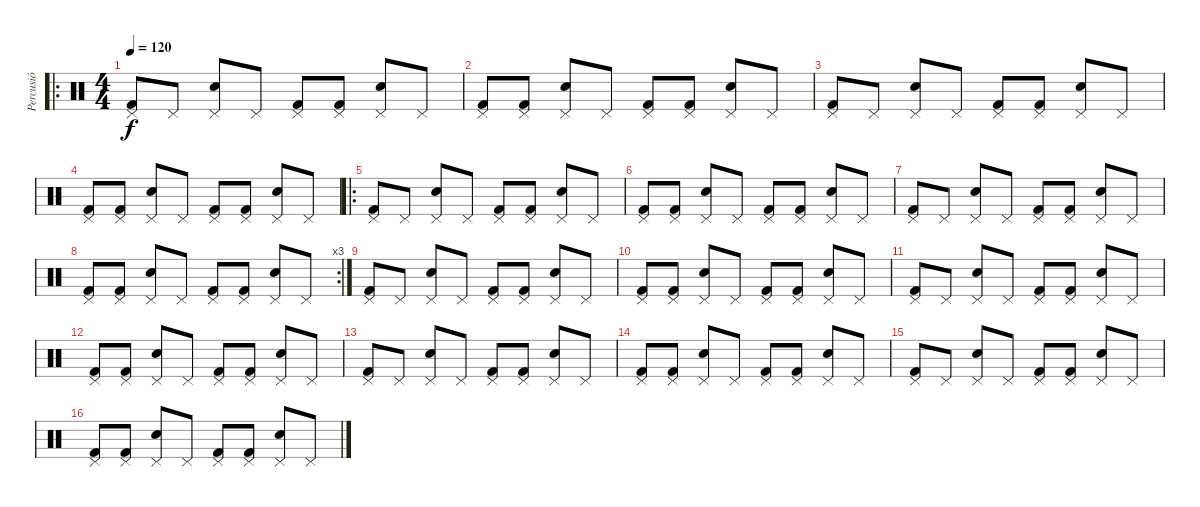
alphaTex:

\track ("Percusió" "Percusió") {instrument percussion}
\staff {score}
\articulation defaults
\ro
\ts (4 4)
\tempo 120
\clef neutral
\ks c
("Pedal Hi-Hat (hit)" "Kick (hit) 2").8{dy f} "Pedal Hi-Hat (hit)".8 ("Pedal Hi-Hat (hit)" "Snare (hit) 2").8 "Pedal Hi-Hat (hit)".8 ("Pedal Hi-Hat (hit)" "Kick (hit) 2").8 ("Pedal Hi-Hat (hit)" "Kick (hit) 2").8 ("Pedal Hi-Hat (hit)" "Snare (hit) 2").8 "Pedal Hi-Hat (hit)".8 |
("Pedal Hi-Hat (hit)" "Kick (hit) 2").8 ("Pedal Hi-Hat (hit)" "Kick (hit) 2").8 ("Pedal Hi-Hat (hit)" "Snare (hit) 2").8 "Pedal Hi-Hat (hit)".8 ("Pedal Hi-Hat (hit)" "Kick (hit) 2").8 ("Pedal Hi-Hat (hit)" "Kick (hit) 2").8 ("Pedal Hi-Hat (hit)" "Snare (hit) 2").8 "Pedal Hi-Hat (hit)".8 |
("Pedal Hi-Hat (hit)" "Kick (hit) 2").8 "Pedal Hi-Hat (hit)".8 ("Pedal Hi-Hat (hit)" "Snare (hit) 2").8 "Pedal Hi-Hat (hit)".8 ("Pedal Hi-Hat (hit)" "Kick (hit) 2").8 ("Pedal Hi-Hat (hit)" "Kick (hit) 2").8 ("Pedal Hi-Hat (hit)" "Snare (hit) 2").8 "Pedal Hi-Hat (hit)".8 |
("Pedal Hi-Hat (hit)" "Kick (hit) 2").8 ("Pedal Hi-Hat (hit)" "Kick (hit) 2").8 ("Pedal Hi-Hat (hit)" "Snare (hit) 2").8 "Pedal Hi-Hat (hit)".8 ("Pedal Hi-Hat (hit)" "Kick (hit) 2").8 ("Pedal Hi-Hat (hit)" "Kick (hit) 2").8 ("Pedal Hi-Hat (hit)" "Snare (hit) 2").8 "Pedal Hi-Hat (hit)".8 |
\ro
("Pedal Hi-Hat (hit)" "Kick (hit) 2").8 "Pedal Hi-Hat (hit)".8 ("Pedal Hi-Hat (hit)" "Snare (hit) 2").8 "Pedal Hi-Hat (hit)".8 ("Pedal Hi-Hat (hit)" "Kick (hit) 2").8 ("Pedal Hi-Hat (hit)" "Kick (hit) 2").8 ("Pedal Hi-Hat (hit)" "Snare (hit) 2").8 "Pedal Hi-Hat (hit)".8 |
("Pedal Hi-Hat (hit)" "Kick (hit) 2").8 ("Pedal Hi-Hat (hit)" "Kick (hit) 2").8 ("Pedal Hi-Hat (hit)" "Snare (hit) 2").8 "Pedal Hi-Hat (hit)".8 ("Pedal Hi-Hat (hit)" "Kick (hit) 2").8 ("Pedal Hi-Hat (hit)" "Kick (hit) 2").8 ("Pedal Hi-Hat (hit)" "Snare (hit) 2").8 "Pedal Hi-Hat (hit)".8 |
("Pedal Hi-Hat (hit)" "Kick (hit) 2").8 "Pedal Hi-Hat (hit)".8 ("Pedal Hi-Hat (hit)" "Snare (hit) 2").8 "Pedal Hi-Hat (hit)".8 ("Pedal Hi-Hat (hit)" "Kick (hit) 2").8 ("Pedal Hi-Hat (hit)" "Kick (hit) 2").8 ("Pedal Hi-Hat (hit)" "Snare (hit) 2").8 "Pedal Hi-Hat (hit)".8 |
\rc 3
("Pedal Hi-Hat (hit)" "Kick (hit) 2").8 ("Pedal Hi-Hat (hit)" "Kick (hit) 2").8 ("Pedal Hi-Hat (hit)" "Snare (hit) 2").8 "Pedal Hi-Hat (hit)".8 ("Pedal Hi-Hat (hit)" "Kick (hit) 2").8 ("Pedal Hi-Hat (hit)" "Kick (hit) 2").8 ("Pedal Hi-Hat (hit)" "Snare (hit) 2").8 "Pedal Hi-Hat (hit)".8 |
("Pedal Hi-Hat (hit)" "Kick (hit) 2").8 "Pedal Hi-Hat (hit)".8 ("Pedal Hi-Hat (hit)" "Snare (hit) 2").8 "Pedal Hi-Hat (hit)".8 ("Pedal Hi-Hat (hit)" "Kick (hit) 2").8 ("Pedal Hi-Hat (hit)" "Kick (hit) 2").8 ("Pedal Hi-Hat (hit)" "Snare (hit) 2").8 "Pedal Hi-Hat (hit)".8 |
("Pedal Hi-Hat (hit)" "Kick (hit) 2").8 ("Pedal Hi-Hat (hit)" "Kick (hit) 2").8 ("Pedal Hi-Hat (hit)" "Snare (hit) 2").8 "Pedal Hi-Hat (hit)".8 ("Pedal Hi-Hat (hit)" "Kick (hit) 2").8 ("Pedal Hi-Hat (hit)" "Kick (hit) 2").8 ("Pedal Hi-Hat (hit)" "Snare (hit) 2").8 "Pedal Hi-Hat (hit)".8 |
("Pedal Hi-Hat (hit)" "Kick (hit) 2").8 "Pedal Hi-Hat (hit)".8 ("Pedal Hi-Hat (hit)" "Snare (hit) 2").8 "Pedal Hi-Hat (hit)".8 ("Pedal Hi-Hat (hit)" "Kick (hit) 2").8 ("Pedal Hi-Hat (hit)" "Kick (hit) 2").8 ("Pedal Hi-Hat (hit)" "Snare (hit) 2").8 "Pedal Hi-Hat (hit)".8 |
("Pedal Hi-Hat (hit)" "Kick (hit) 2").8 ("Pedal Hi-Hat (hit)" "Kick (hit) 2").8 ("Pedal Hi-Hat (hit)" "Snare (hit) 2").8 "Pedal Hi-Hat (hit)".8 ("Pedal Hi-Hat (hit)" "Kick (hit) 2").8 ("Pedal Hi-Hat (hit)" "Kick (hit) 2").8 ("Pedal Hi-Hat (hit)" "Snare (hit) 2").8 "Pedal Hi-Hat (hit)".8 |
("Pedal Hi-Hat (hit)" "Kick (hit) 2").8 "Pedal Hi-Hat (hit)".8 ("Pedal Hi-Hat (hit)" "Snare (hit) 2").8 "Pedal Hi-Hat (hit)".8 ("Pedal Hi-Hat (hit)" "Kick (hit) 2").8 ("Pedal Hi-Hat (hit)" "Kick (hit) 2").8 ("Pedal Hi-Hat (hit)" "Snare (hit) 2").8 "Pedal Hi-Hat (hit)".8 |
("Pedal Hi-Hat (hit)" "Kick (hit) 2").8 ("Pedal Hi-Hat (hit)" "Kick (hit) 2").8 ("Pedal Hi-Hat (hit)" "Snare (hit) 2").8 "Pedal Hi-Hat (hit)".8 ("Pedal Hi-Hat (hit)" "Kick (hit) 2").8 ("Pedal Hi-Hat (hit)" "Kick (hit) 2").8 ("Pedal Hi-Hat (hit)" "Snare (hit) 2").8 "Pedal Hi-Hat (hit)".8 |
("Pedal Hi-Hat (hit)" "Kick (hit) 2").8 "Pedal Hi-Hat (hit)".8 ("Pedal Hi-Hat (hit)" "Snare (hit) 2").8 "Pedal Hi-Hat (hit)".8 ("Pedal Hi-Hat (hit)" "Kick (hit) 2").8 ("Pedal Hi-Hat (hit)" "Kick (hit) 2").8 ("Pedal Hi-Hat (hit)" "Snare (hit) 2").8 "Pedal Hi-Hat (hit)".8 |
("Pedal Hi-Hat (hit)" "Kick (hit) 2").8 ("Pedal Hi-Hat (hit)" "Kick (hit) 2").8 ("Pedal Hi-Hat (hit)" "Snare (hit) 2").8 "Pedal Hi-Hat (hit)".8 ("Pedal Hi-Hat (hit)" "Kick (hit) 2").8 ("Pedal Hi-Hat (hit)" "Kick (hit) 2").8 ("Pedal Hi-Hat (hit)" "Snare (hit) 2").8 "Pedal Hi-Hat (hit)".8
